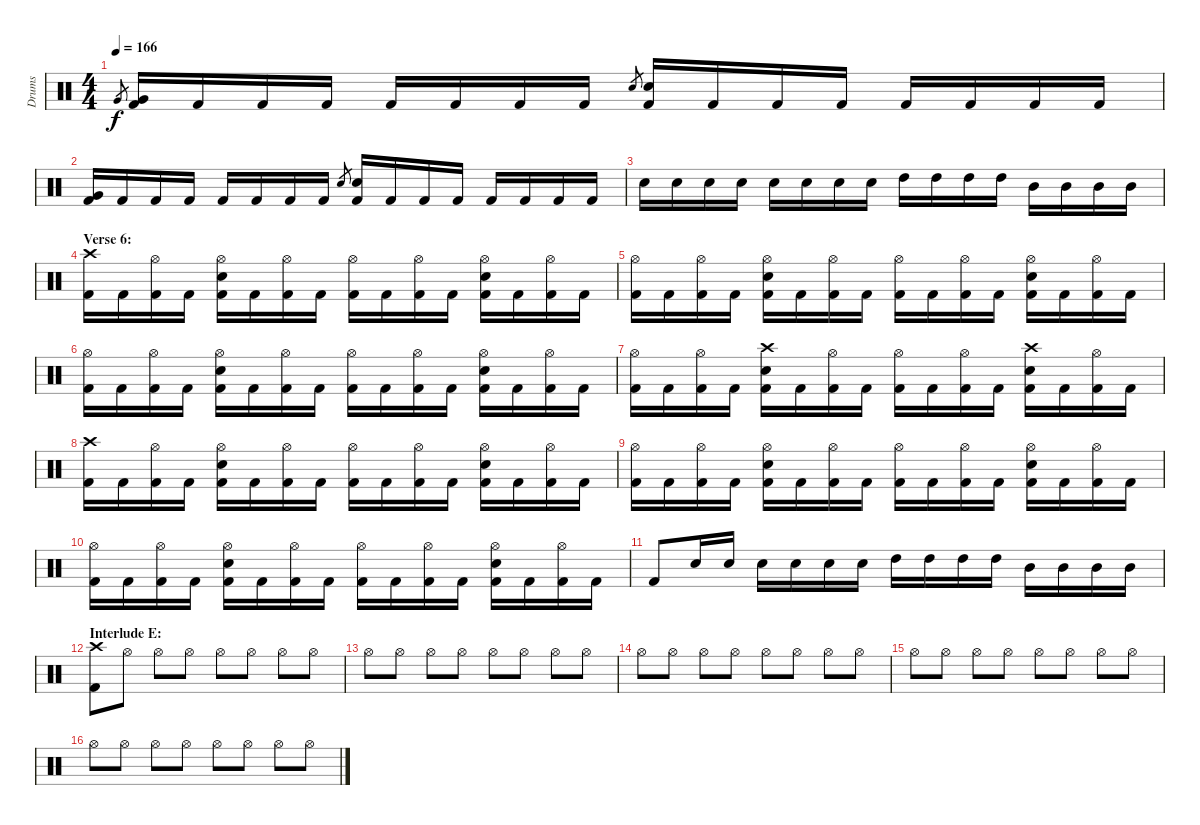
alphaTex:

\track ("Drums" "Drums") {instrument percussion}
\staff {score}
\articulation defaults
\ts (4 4)
\tempo 166
\clef neutral
\ks c "Very Low Tom (hit)".8{gr dy f}
("Very Low Tom (hit)" "Kick (hit) 2").16 "Kick (hit) 2".16 "Kick (hit) 2".16 "Kick (hit) 2".16 "Kick (hit) 2".16 "Kick (hit) 2".16 "Kick (hit) 2".16 "Kick (hit) 2".16 "Electric Snare (hit)".8{gr} ("Electric Snare (hit)" "Kick (hit) 2").16 "Kick (hit) 2".16 "Kick (hit) 2".16 "Kick (hit) 2".16 "Kick (hit) 2".16 "Kick (hit) 2".16 "Kick (hit) 2".16 "Kick (hit) 2".16 |
("Very Low Tom (hit)" "Kick (hit) 2").16 "Kick (hit) 2".16 "Kick (hit) 2".16 "Kick (hit) 2".16 "Kick (hit) 2".16 "Kick (hit) 2".16 "Kick (hit) 2".16 "Kick (hit) 2".16 "Electric Snare (hit)".8{gr} ("Electric Snare (hit)" "Kick (hit) 2").16 "Kick (hit) 2".16 "Kick (hit) 2".16 "Kick (hit) 2".16 "Kick (hit) 2".16 "Kick (hit) 2".16 "Kick (hit) 2".16 "Kick (hit) 2".16 |
"Electric Snare (hit)".16 "Electric Snare (hit)".16 "Electric Snare (hit)".16 "Electric Snare (hit)".16 "Electric Snare (hit)".16 "Electric Snare (hit)".16 "Electric Snare (hit)".16 "Electric Snare (hit)".16 "High Tom (hit)".16 "High Tom (hit)".16 "High Tom (hit)".16 "High Tom (hit)".16 "Mid Tom (hit)".16 "Mid Tom (hit)".16 "Mid Tom (hit)".16 "Mid Tom (hit)".16 |
\section ("" "Verse 6:")
("Crash high (hit)" "Kick (hit) 2").16 "Kick (hit) 2".16 ("Hi-Hat (open)" "Kick (hit) 2").16 "Kick (hit) 2".16 ("Hi-Hat (open)" "Electric Snare (hit)" "Kick (hit) 2").16 "Kick (hit) 2".16 ("Hi-Hat (open)" "Kick (hit) 2").16 "Kick (hit) 2".16 ("Hi-Hat (open)" "Kick (hit) 2").16 "Kick (hit) 2".16 ("Hi-Hat (open)" "Kick (hit) 2").16 "Kick (hit) 2".16 ("Hi-Hat (open)" "Electric Snare (hit)" "Kick (hit) 2").16 "Kick (hit) 2".16 ("Hi-Hat (open)" "Kick (hit) 2").16 "Kick (hit) 2".16 |
("Hi-Hat (open)" "Kick (hit) 2").16 "Kick (hit) 2".16 ("Hi-Hat (open)" "Kick (hit) 2").16 "Kick (hit) 2".16 ("Hi-Hat (open)" "Electric Snare (hit)" "Kick (hit) 2").16 "Kick (hit) 2".16 ("Hi-Hat (open)" "Kick (hit) 2").16 "Kick (hit) 2".16 ("Hi-Hat (open)" "Kick (hit) 2").16 "Kick (hit) 2".16 ("Hi-Hat (open)" "Kick (hit) 2").16 "Kick (hit) 2".16 ("Hi-Hat (open)" "Electric Snare (hit)" "Kick (hit) 2").16 "Kick (hit) 2".16 ("Hi-Hat (open)" "Kick (hit) 2").16 "Kick (hit) 2".16 |
("Hi-Hat (open)" "Kick (hit) 2").16 "Kick (hit) 2".16 ("Hi-Hat (open)" "Kick (hit) 2").16 "Kick (hit) 2".16 ("Hi-Hat (open)" "Electric Snare (hit)" "Kick (hit) 2").16 "Kick (hit) 2".16 ("Hi-Hat (open)" "Kick (hit) 2").16 "Kick (hit) 2".16 ("Hi-Hat (open)" "Kick (hit) 2").16 "Kick (hit) 2".16 ("Hi-Hat (open)" "Kick (hit) 2").16 "Kick (hit) 2".16 ("Hi-Hat (open)" "Electric Snare (hit)" "Kick (hit) 2").16 "Kick (hit) 2".16 ("Hi-Hat (open)" "Kick (hit) 2").16 "Kick (hit) 2".16 |
("Hi-Hat (open)" "Kick (hit) 2").16 "Kick (hit) 2".16 ("Hi-Hat (open)" "Kick (hit) 2").16 "Kick (hit) 2".16 ("Crash high (hit)" "Electric Snare (hit)" "Kick (hit) 2").16 "Kick (hit) 2".16 ("Hi-Hat (open)" "Kick (hit) 2").16 "Kick (hit) 2".16 ("Hi-Hat (open)" "Kick (hit) 2").16 "Kick (hit) 2".16 ("Hi-Hat (open)" "Kick (hit) 2").16 "Kick (hit) 2".16 ("Crash high (hit)" "Electric Snare (hit)" "Kick (hit) 2").16 "Kick (hit) 2".16 ("Hi-Hat (open)" "Kick (hit) 2").16 "Kick (hit) 2".16 |
("Crash high (hit)" "Kick (hit) 2").16 "Kick (hit) 2".16 ("Hi-Hat (open)" "Kick (hit) 2").16 "Kick (hit) 2".16 ("Hi-Hat (open)" "Electric Snare (hit)" "Kick (hit) 2").16 "Kick (hit) 2".16 ("Hi-Hat (open)" "Kick (hit) 2").16 "Kick (hit) 2".16 ("Hi-Hat (open)" "Kick (hit) 2").16 "Kick (hit) 2".16 ("Hi-Hat (open)" "Kick (hit) 2").16 "Kick (hit) 2".16 ("Hi-Hat (open)" "Electric Snare (hit)" "Kick (hit) 2").16 "Kick (hit) 2".16 ("Hi-Hat (open)" "Kick (hit) 2").16 "Kick (hit) 2".16 |
("Hi-Hat (open)" "Kick (hit) 2").16 "Kick (hit) 2".16 ("Hi-Hat (open)" "Kick (hit) 2").16 "Kick (hit) 2".16 ("Hi-Hat (open)" "Electric Snare (hit)" "Kick (hit) 2").16 "Kick (hit) 2".16 ("Hi-Hat (open)" "Kick (hit) 2").16 "Kick (hit) 2".16 ("Hi-Hat (open)" "Kick (hit) 2").16 "Kick (hit) 2".16 ("Hi-Hat (open)" "Kick (hit) 2").16 "Kick (hit) 2".16 ("Hi-Hat (open)" "Electric Snare (hit)" "Kick (hit) 2").16 "Kick (hit) 2".16 ("Hi-Hat (open)" "Kick (hit) 2").16 "Kick (hit) 2".16 |
("Hi-Hat (open)" "Kick (hit) 2").16 "Kick (hit) 2".16 ("Hi-Hat (open)" "Kick (hit) 2").16 "Kick (hit) 2".16 ("Hi-Hat (open)" "Electric Snare (hit)" "Kick (hit) 2").16 "Kick (hit) 2".16 ("Hi-Hat (open)" "Kick (hit) 2").16 "Kick (hit) 2".16 ("Hi-Hat (open)" "Kick (hit) 2").16 "Kick (hit) 2".16 ("Hi-Hat (open)" "Kick (hit) 2").16 "Kick (hit) 2".16 ("Hi-Hat (open)" "Electric Snare (hit)" "Kick (hit) 2").16 "Kick (hit) 2".16 ("Hi-Hat (open)" "Kick (hit) 2").16 "Kick (hit) 2".16 |
"Kick (hit) 2".8 "Electric Snare (hit)".16 "Electric Snare (hit)".16 "Electric Snare (hit)".16 "Electric Snare (hit)".16 "Electric Snare (hit)".16 "Electric Snare (hit)".16 "High Tom (hit)".16 "High Tom (hit)".16 "High Tom (hit)".16 "High Tom (hit)".16 "Mid Tom (hit)".16 "Mid Tom (hit)".16 "Mid Tom (hit)".16 "Mid Tom (hit)".16 |
\section ("" "Interlude E:")
("Crash high (hit)" "Kick (hit) 2").8 "Hi-Hat (open)".8 "Hi-Hat (open)".8 "Hi-Hat (open)".8 "Hi-Hat (open)".8 "Hi-Hat (open)".8 "Hi-Hat (open)".8 "Hi-Hat (open)".8 |
"Hi-Hat (open)".8 "Hi-Hat (open)".8 "Hi-Hat (open)".8 "Hi-Hat (open)".8 "Hi-Hat (open)".8 "Hi-Hat (open)".8 "Hi-Hat (open)".8 "Hi-Hat (open)".8 |
"Hi-Hat (open)".8 "Hi-Hat (open)".8 "Hi-Hat (open)".8 "Hi-Hat (open)".8 "Hi-Hat (open)".8 "Hi-Hat (open)".8 "Hi-Hat (open)".8 "Hi-Hat (open)".8 |
"Hi-Hat (open)".8 "Hi-Hat (open)".8 "Hi-Hat (open)".8 "Hi-Hat (open)".8 "Hi-Hat (open)".8 "Hi-Hat (open)".8 "Hi-Hat (open)".8 "Hi-Hat (open)".8 |
"Hi-Hat (open)".8 "Hi-Hat (open)".8 "Hi-Hat (open)".8 "Hi-Hat (open)".8 "Hi-Hat (open)".8 "Hi-Hat (open)".8 "Hi-Hat (open)".8 "Hi-Hat (open)".8
